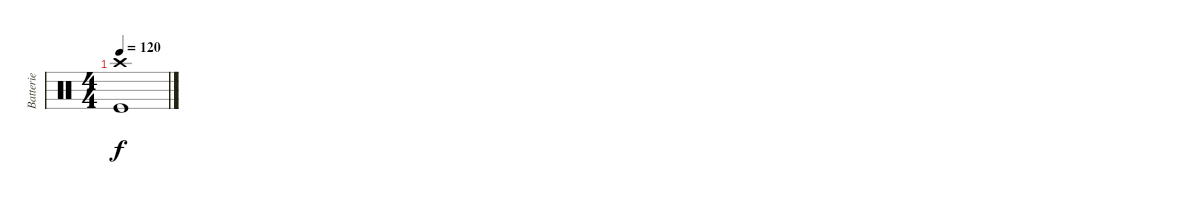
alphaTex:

\track ("Batterie" "Batterie") {instrument percussion}
\staff {score}
\articulation defaults
\ts (4 4)
\tempo 120
\clef neutral
\ks c
("Crash high (hit)" "Kick (hit)").1{dy f}
